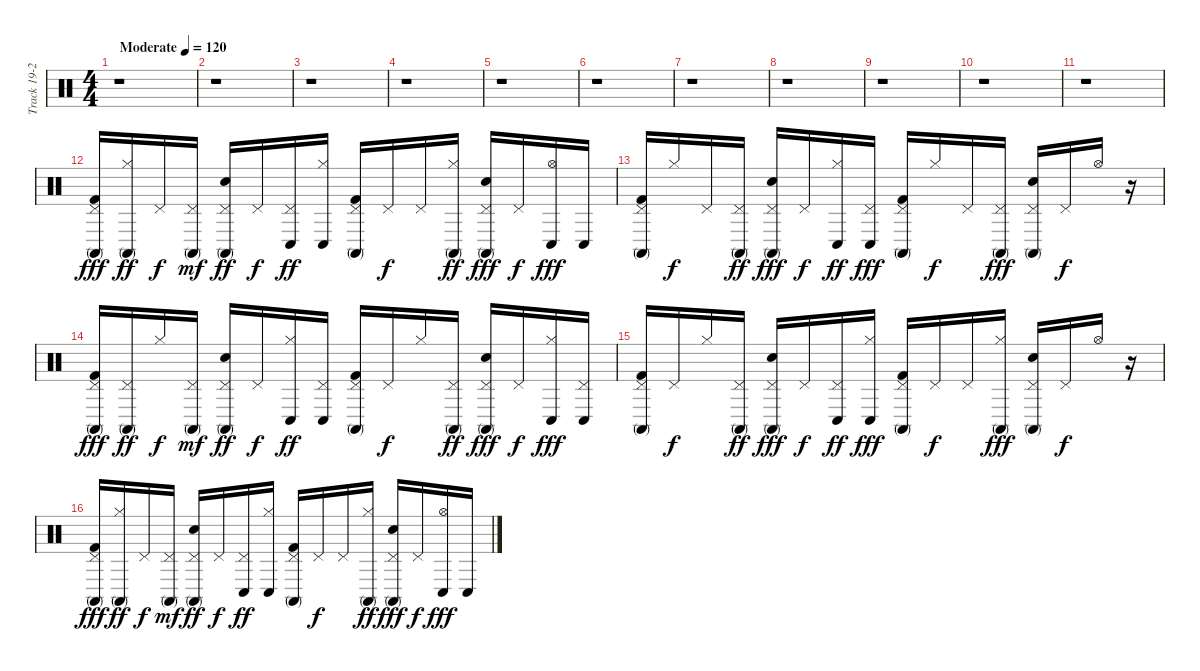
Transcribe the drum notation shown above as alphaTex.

\track ("Track 19-20-21" "Track 19-2") {instrument percussion}
\staff {score}
\articulation defaults
\ts (4 4)
\tempo (120 "Moderate")
\clef neutral
\ks c
r.1{dy fff} |
r.1 |
r.1 |
r.1 |
r.1 |
r.1 |
r.1 |
r.1 |
r.1 |
r.1 |
r.1 |
("Conga high (mute)" "Kick (hit) 2" "Pedal Hi-Hat (hit)").16{volume 16 balance 8} ("Hi-Hat (closed)" "Conga high (mute)").16{dy ff} "Pedal Hi-Hat (hit)".16{dy f} ("Conga high (mute)" "Pedal Hi-Hat (hit)").16{dy mf} ("Conga high (mute)" "Snare (hit) 2" "Pedal Hi-Hat (hit)").16{dy ff} "Pedal Hi-Hat (hit)".16{dy f} ("Conga low (hit)" "Pedal Hi-Hat (hit)").16{dy ff} ("Hi-Hat (closed)" "Conga low (hit)").16 ("Conga high (mute)" "Kick (hit) 2" "Pedal Hi-Hat (hit)").16 "Pedal Hi-Hat (hit)".16{dy f} "Pedal Hi-Hat (hit)".16 ("Hi-Hat (closed)" "Conga high (mute)").16{dy ff} ("Conga high (mute)" "Snare (hit) 2" "Pedal Hi-Hat (hit)").16{dy fff} "Pedal Hi-Hat (hit)".16{dy f} ("Hi-Hat (open)" "Conga low (hit)").16{dy fff} "Conga low (hit)".16 |
("Pedal Hi-Hat (hit)" "Conga high (mute)" "Kick (hit) 2").16 "Hi-Hat (closed)".16{dy f} "Pedal Hi-Hat (hit)".16 ("Pedal Hi-Hat (hit)" "Conga high (mute)").16{dy ff} ("Pedal Hi-Hat (hit)" "Conga high (mute)" "Snare (hit) 2").16{dy fff} "Pedal Hi-Hat (hit)".16{dy f} ("Hi-Hat (closed)" "Conga low (hit)").16{dy ff} ("Pedal Hi-Hat (hit)" "Conga low (hit)").16{dy fff} ("Pedal Hi-Hat (hit)" "Conga high (mute)" "Kick (hit) 2").16 "Hi-Hat (closed)".16{dy f} "Pedal Hi-Hat (hit)".16 ("Pedal Hi-Hat (hit)" "Conga high (mute)").16{dy fff} ("Pedal Hi-Hat (hit)" "Conga high (mute)" "Snare (hit) 2").16 "Pedal Hi-Hat (hit)".16{dy f} "Hi-Hat (open)".16 r.16 |
("Conga high (mute)" "Kick (hit) 2" "Pedal Hi-Hat (hit)").16{dy fff} ("Pedal Hi-Hat (hit)" "Conga high (mute)").16{dy ff} "Hi-Hat (closed)".16{dy f} ("Conga high (mute)" "Pedal Hi-Hat (hit)").16{dy mf} ("Conga high (mute)" "Snare (hit) 2" "Pedal Hi-Hat (hit)").16{dy ff} "Pedal Hi-Hat (hit)".16{dy f} ("Hi-Hat (closed)" "Conga low (hit)").16{dy ff} ("Pedal Hi-Hat (hit)" "Conga low (hit)").16 ("Conga high (mute)" "Kick (hit) 2" "Pedal Hi-Hat (hit)").16 "Pedal Hi-Hat (hit)".16{dy f} "Hi-Hat (closed)".16 ("Pedal Hi-Hat (hit)" "Conga high (mute)").16{dy ff} ("Conga high (mute)" "Snare (hit) 2" "Pedal Hi-Hat (hit)").16{dy fff} "Pedal Hi-Hat (hit)".16{dy f} ("Hi-Hat (closed)" "Conga low (hit)").16{dy fff} ("Pedal Hi-Hat (hit)" "Conga low (hit)").16 |
("Pedal Hi-Hat (hit)" "Conga high (mute)" "Kick (hit) 2").16 "Pedal Hi-Hat (hit)".16{dy f} "Hi-Hat (closed)".16 ("Pedal Hi-Hat (hit)" "Conga high (mute)").16{dy ff} ("Pedal Hi-Hat (hit)" "Conga high (mute)" "Snare (hit) 2").16{dy fff} "Pedal Hi-Hat (hit)".16{dy f} ("Pedal Hi-Hat (hit)" "Conga low (hit)").16{dy ff} ("Hi-Hat (closed)" "Conga low (hit)").16{dy fff} ("Pedal Hi-Hat (hit)" "Conga high (mute)" "Kick (hit) 2").16 "Pedal Hi-Hat (hit)".16{dy f} "Pedal Hi-Hat (hit)".16 ("Hi-Hat (closed)" "Conga high (mute)").16{dy fff} ("Pedal Hi-Hat (hit)" "Conga high (mute)" "Snare (hit) 2").16 "Pedal Hi-Hat (hit)".16{dy f} "Hi-Hat (open)".16 r.16 |
("Conga high (mute)" "Kick (hit) 2" "Pedal Hi-Hat (hit)").16{dy fff} ("Hi-Hat (closed)" "Conga high (mute)").16{dy ff} "Pedal Hi-Hat (hit)".16{dy f} ("Conga high (mute)" "Pedal Hi-Hat (hit)").16{dy mf} ("Conga high (mute)" "Snare (hit) 2" "Pedal Hi-Hat (hit)").16{dy ff} "Pedal Hi-Hat (hit)".16{dy f} ("Conga low (hit)" "Pedal Hi-Hat (hit)").16{dy ff} ("Hi-Hat (closed)" "Conga low (hit)").16 ("Conga high (mute)" "Kick (hit) 2" "Pedal Hi-Hat (hit)").16 "Pedal Hi-Hat (hit)".16{dy f} "Pedal Hi-Hat (hit)".16 ("Hi-Hat (closed)" "Conga high (mute)").16{dy ff} ("Conga high (mute)" "Snare (hit) 2" "Pedal Hi-Hat (hit)").16{dy fff} "Pedal Hi-Hat (hit)".16{dy f} ("Hi-Hat (open)" "Conga low (hit)").16{dy fff} "Conga low (hit)".16
